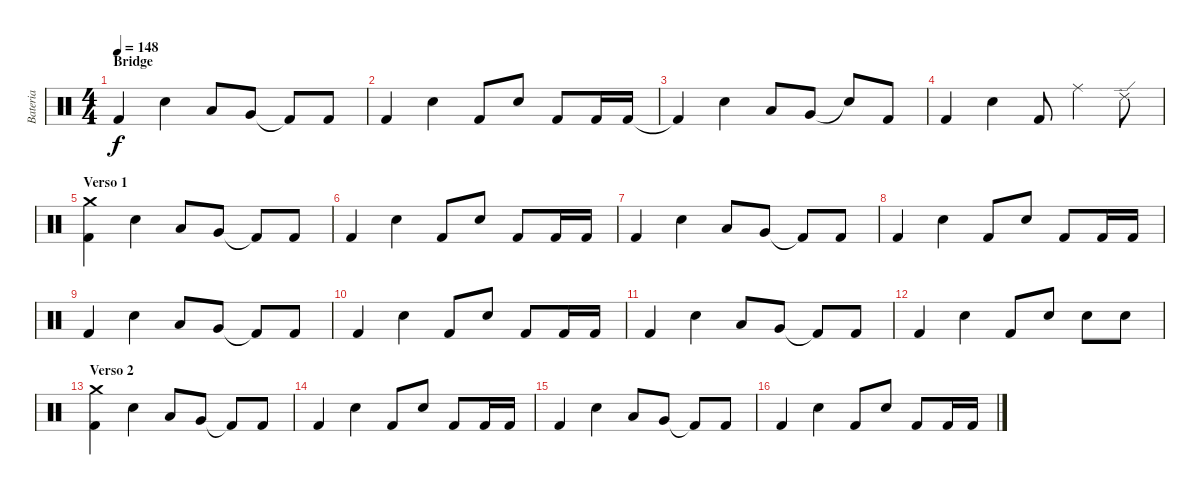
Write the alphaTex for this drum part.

\track ("Bateria" "Bateria") {instrument percussion}
\staff {score}
\articulation defaults
\ts (4 4)
\section ("" "Bridge")
\tempo 148
\clef neutral
\ks c "Kick (hit) 2".4{dy f} "Electric Snare (hit)".4 "Low Tom (hit)".8 "Very Low Tom (hit)".8 "Kick (hit) 2"{t}.8 "Kick (hit) 2".8
|
"Kick (hit) 2".4 "Electric Snare (hit)".4 "Kick (hit) 2".8 "Electric Snare (hit)".8 "Kick (hit) 2".8 "Kick (hit) 2".16 "Kick (hit) 2".16 |
"Kick (hit) 2"{t}.4 "Electric Snare (hit)".4 "Low Tom (hit)".8 "Very Low Tom (hit)".8 "Snare (hit)"{t}.8 "Kick (hit) 2".8 |
"Kick (hit) 2".4 "Electric Snare (hit)".4 "Kick (hit) 2".8 "Ride (middle)".4 "Ride (edge) 2".8 |
\section ("" "Verso 1")
("Crash medium (hit)" "Kick (hit) 2").4 "Electric Snare (hit)".4 "Low Tom (hit)".8 "Very Low Tom (hit)".8 "Kick (hit) 2"{t}.8 "Kick (hit) 2".8 |
"Kick (hit) 2".4 "Electric Snare (hit)".4 "Kick (hit) 2".8 "Electric Snare (hit)".8 "Kick (hit) 2".8 "Kick (hit) 2".16 "Kick (hit) 2".16 |
"Kick (hit) 2".4 "Electric Snare (hit)".4 "Low Tom (hit)".8 "Very Low Tom (hit)".8 "Kick (hit) 2"{t}.8 "Kick (hit) 2".8 |
"Kick (hit) 2".4 "Electric Snare (hit)".4 "Kick (hit) 2".8 "Electric Snare (hit)".8 "Kick (hit) 2".8 "Kick (hit) 2".16 "Kick (hit) 2".16 |
"Kick (hit) 2".4 "Electric Snare (hit)".4 "Low Tom (hit)".8 "Very Low Tom (hit)".8 "Kick (hit) 2"{t}.8 "Kick (hit) 2".8 |
"Kick (hit) 2".4 "Electric Snare (hit)".4 "Kick (hit) 2".8 "Electric Snare (hit)".8 "Kick (hit) 2".8 "Kick (hit) 2".16 "Kick (hit) 2".16 |
"Kick (hit) 2".4 "Electric Snare (hit)".4 "Low Tom (hit)".8 "Very Low Tom (hit)".8 "Kick (hit) 2"{t}.8 "Kick (hit) 2".8 |
"Kick (hit) 2".4 "Electric Snare (hit)".4 "Kick (hit) 2".8 "Electric Snare (hit)".8 "Electric Snare (hit)".8 "Electric Snare (hit)".8 |
\section ("" "Verso 2")
("Crash medium (hit)" "Kick (hit) 2").4 "Electric Snare (hit)".4 "Low Tom (hit)".8 "Very Low Tom (hit)".8 "Kick (hit) 2"{t}.8 "Kick (hit) 2".8 |
"Kick (hit) 2".4 "Electric Snare (hit)".4 "Kick (hit) 2".8 "Electric Snare (hit)".8 "Kick (hit) 2".8 "Kick (hit) 2".16 "Kick (hit) 2".16 |
"Kick (hit) 2".4 "Electric Snare (hit)".4 "Low Tom (hit)".8 "Very Low Tom (hit)".8 "Kick (hit) 2"{t}.8 "Kick (hit) 2".8 |
"Kick (hit) 2".4 "Electric Snare (hit)".4 "Kick (hit) 2".8 "Electric Snare (hit)".8 "Kick (hit) 2".8 "Kick (hit) 2".16 "Kick (hit) 2".16
